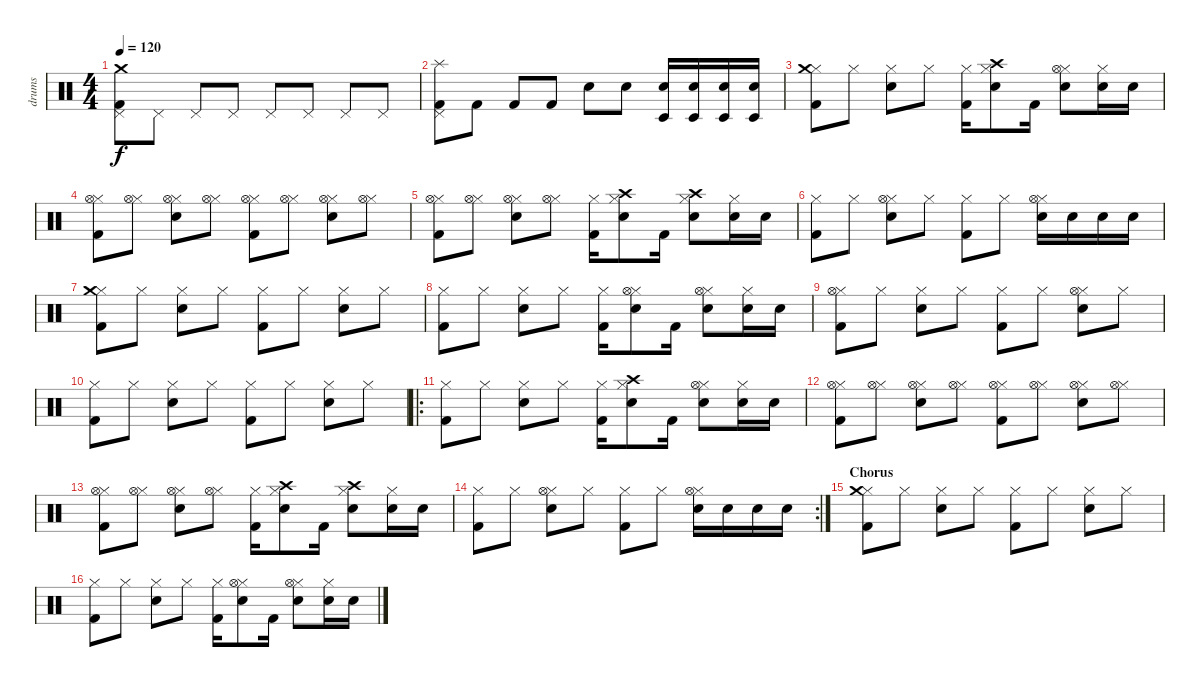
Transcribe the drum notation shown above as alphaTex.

\track ("drums" "drums") {instrument percussion}
\staff {score}
\articulation defaults
\ts (4 4)
\tempo 120
\clef neutral
\ks c
("Crash medium (hit)" "Pedal Hi-Hat (hit)" "Kick (hit) 2").8{dy f} "Pedal Hi-Hat (hit)".8 "Pedal Hi-Hat (hit)".8 "Pedal Hi-Hat (hit)".8 "Pedal Hi-Hat (hit)".8 "Pedal Hi-Hat (hit)".8 "Pedal Hi-Hat (hit)".8 "Pedal Hi-Hat (hit)".8 |
("Splash (hit)" "Pedal Hi-Hat (hit)" "Kick (hit) 2").8 "Kick (hit) 2".8 "Kick (hit) 2".8 "Kick (hit) 2".8 "Electric Snare (hit)".8 "Electric Snare (hit)".8 ("Timbale low (hit)" "Electric Snare (hit)").16 ("Timbale low (hit)" "Electric Snare (hit)").16 ("Timbale low (hit)" "Electric Snare (hit)").16 ("Timbale low (hit)" "Electric Snare (hit)").16 |
("Hi-Hat (closed)" "Crash medium (hit)" "Kick (hit) 2").8 "Hi-Hat (closed)".8 ("Hi-Hat (closed)" "Electric Snare (hit)").8 "Hi-Hat (closed)".8 ("Hi-Hat (closed)" "Kick (hit) 2").16 ("Hi-Hat (closed)" "Crash high (hit)" "Electric Snare (hit)").8 "Kick (hit) 2".16 ("Hi-Hat (closed)" "Hi-Hat (open)" "Electric Snare (hit)").8 ("Hi-Hat (closed)" "Electric Snare (hit)").16 "Electric Snare (hit)".16 |
("Hi-Hat (closed)" "Hi-Hat (open)" "Kick (hit) 2").8 ("Hi-Hat (closed)" "Hi-Hat (open)").8 ("Hi-Hat (closed)" "Hi-Hat (open)" "Electric Snare (hit)").8 ("Hi-Hat (closed)" "Hi-Hat (open)").8 ("Hi-Hat (closed)" "Hi-Hat (open)" "Kick (hit) 2").8 ("Hi-Hat (closed)" "Hi-Hat (open)").8 ("Hi-Hat (closed)" "Hi-Hat (open)" "Electric Snare (hit)").8 ("Hi-Hat (closed)" "Hi-Hat (open)").8 |
("Hi-Hat (closed)" "Hi-Hat (open)" "Kick (hit) 2").8 ("Hi-Hat (closed)" "Hi-Hat (open)").8 ("Hi-Hat (closed)" "Hi-Hat (open)" "Electric Snare (hit)").8 ("Hi-Hat (closed)" "Hi-Hat (open)").8 ("Hi-Hat (closed)" "Kick (hit) 2").16 ("Hi-Hat (closed)" "Crash high (hit)" "Electric Snare (hit)").8 "Kick (hit) 2".16 ("Hi-Hat (closed)" "Crash high (hit)" "Electric Snare (hit)").8 ("Hi-Hat (closed)" "Electric Snare (hit)").16 "Electric Snare (hit)".16 |
("Hi-Hat (closed)" "Kick (hit) 2").8 "Hi-Hat (closed)".8 ("Hi-Hat (closed)" "Hi-Hat (open)" "Electric Snare (hit)").8 "Hi-Hat (closed)".8 ("Hi-Hat (closed)" "Kick (hit) 2").8 "Hi-Hat (closed)".8 ("Hi-Hat (closed)" "Hi-Hat (open)" "Electric Snare (hit)").16 "Electric Snare (hit)".16 "Electric Snare (hit)".16 "Electric Snare (hit)".16 |
("Hi-Hat (closed)" "Crash medium (hit)" "Kick (hit) 2").8 "Hi-Hat (closed)".8 ("Hi-Hat (closed)" "Electric Snare (hit)").8 "Hi-Hat (closed)".8 ("Hi-Hat (closed)" "Kick (hit) 2").8 "Hi-Hat (closed)".8 ("Hi-Hat (closed)" "Electric Snare (hit)").8 "Hi-Hat (closed)".8 |
("Hi-Hat (closed)" "Kick (hit) 2").8 "Hi-Hat (closed)".8 ("Hi-Hat (closed)" "Electric Snare (hit)").8 "Hi-Hat (closed)".8 ("Hi-Hat (closed)" "Kick (hit) 2").16 ("Hi-Hat (closed)" "Hi-Hat (open)" "Electric Snare (hit)").8 "Kick (hit) 2".16 ("Hi-Hat (closed)" "Hi-Hat (open)" "Electric Snare (hit)").8 ("Hi-Hat (closed)" "Electric Snare (hit)").16 "Electric Snare (hit)".16 |
("Hi-Hat (closed)" "Hi-Hat (open)" "Kick (hit) 2").8 "Hi-Hat (closed)".8 ("Hi-Hat (closed)" "Electric Snare (hit)").8 "Hi-Hat (closed)".8 ("Hi-Hat (closed)" "Kick (hit) 2").8 "Hi-Hat (closed)".8 ("Hi-Hat (closed)" "Hi-Hat (open)" "Electric Snare (hit)").8 "Hi-Hat (closed)".8 |
("Hi-Hat (closed)" "Kick (hit) 2").8 "Hi-Hat (closed)".8 ("Hi-Hat (closed)" "Electric Snare (hit)").8 "Hi-Hat (closed)".8 ("Hi-Hat (closed)" "Kick (hit) 2").8 "Hi-Hat (closed)".8 ("Hi-Hat (closed)" "Electric Snare (hit)").8 "Hi-Hat (closed)".8 |
\ro
("Hi-Hat (closed)" "Kick (hit) 2").8 "Hi-Hat (closed)".8 ("Hi-Hat (closed)" "Electric Snare (hit)").8 "Hi-Hat (closed)".8 ("Hi-Hat (closed)" "Kick (hit) 2").16 ("Hi-Hat (closed)" "Crash high (hit)" "Electric Snare (hit)").8 "Kick (hit) 2".16 ("Hi-Hat (closed)" "Hi-Hat (open)" "Electric Snare (hit)").8 ("Hi-Hat (closed)" "Electric Snare (hit)").16 "Electric Snare (hit)".16 |
("Hi-Hat (closed)" "Hi-Hat (open)" "Kick (hit) 2").8 ("Hi-Hat (closed)" "Hi-Hat (open)").8 ("Hi-Hat (closed)" "Hi-Hat (open)" "Electric Snare (hit)").8 ("Hi-Hat (closed)" "Hi-Hat (open)").8 ("Hi-Hat (closed)" "Hi-Hat (open)" "Kick (hit) 2").8 ("Hi-Hat (closed)" "Hi-Hat (open)").8 ("Hi-Hat (closed)" "Hi-Hat (open)" "Electric Snare (hit)").8 ("Hi-Hat (closed)" "Hi-Hat (open)").8 |
("Hi-Hat (closed)" "Hi-Hat (open)" "Kick (hit) 2").8 ("Hi-Hat (closed)" "Hi-Hat (open)").8 ("Hi-Hat (closed)" "Hi-Hat (open)" "Electric Snare (hit)").8 ("Hi-Hat (closed)" "Hi-Hat (open)").8 ("Hi-Hat (closed)" "Kick (hit) 2").16 ("Hi-Hat (closed)" "Crash high (hit)" "Electric Snare (hit)").8 "Kick (hit) 2".16 ("Hi-Hat (closed)" "Crash high (hit)" "Electric Snare (hit)").8 ("Hi-Hat (closed)" "Electric Snare (hit)").16 "Electric Snare (hit)".16 |
\rc 2
("Hi-Hat (closed)" "Kick (hit) 2").8 "Hi-Hat (closed)".8 ("Hi-Hat (closed)" "Hi-Hat (open)" "Electric Snare (hit)").8 "Hi-Hat (closed)".8 ("Hi-Hat (closed)" "Kick (hit) 2").8 "Hi-Hat (closed)".8 ("Hi-Hat (closed)" "Hi-Hat (open)" "Electric Snare (hit)").16 "Electric Snare (hit)".16 "Electric Snare (hit)".16 "Electric Snare (hit)".16 |
\section ("" "Chorus")
("Hi-Hat (closed)" "Crash medium (hit)" "Kick (hit) 2").8 "Hi-Hat (closed)".8 ("Hi-Hat (closed)" "Electric Snare (hit)").8 "Hi-Hat (closed)".8 ("Hi-Hat (closed)" "Kick (hit) 2").8 "Hi-Hat (closed)".8 ("Hi-Hat (closed)" "Electric Snare (hit)").8 "Hi-Hat (closed)".8 |
("Hi-Hat (closed)" "Kick (hit) 2").8 "Hi-Hat (closed)".8 ("Hi-Hat (closed)" "Electric Snare (hit)").8 "Hi-Hat (closed)".8 ("Hi-Hat (closed)" "Kick (hit) 2").16 ("Hi-Hat (closed)" "Hi-Hat (open)" "Electric Snare (hit)").8 "Kick (hit) 2".16 ("Hi-Hat (closed)" "Hi-Hat (open)" "Electric Snare (hit)").8 ("Hi-Hat (closed)" "Electric Snare (hit)").16 "Electric Snare (hit)".16
